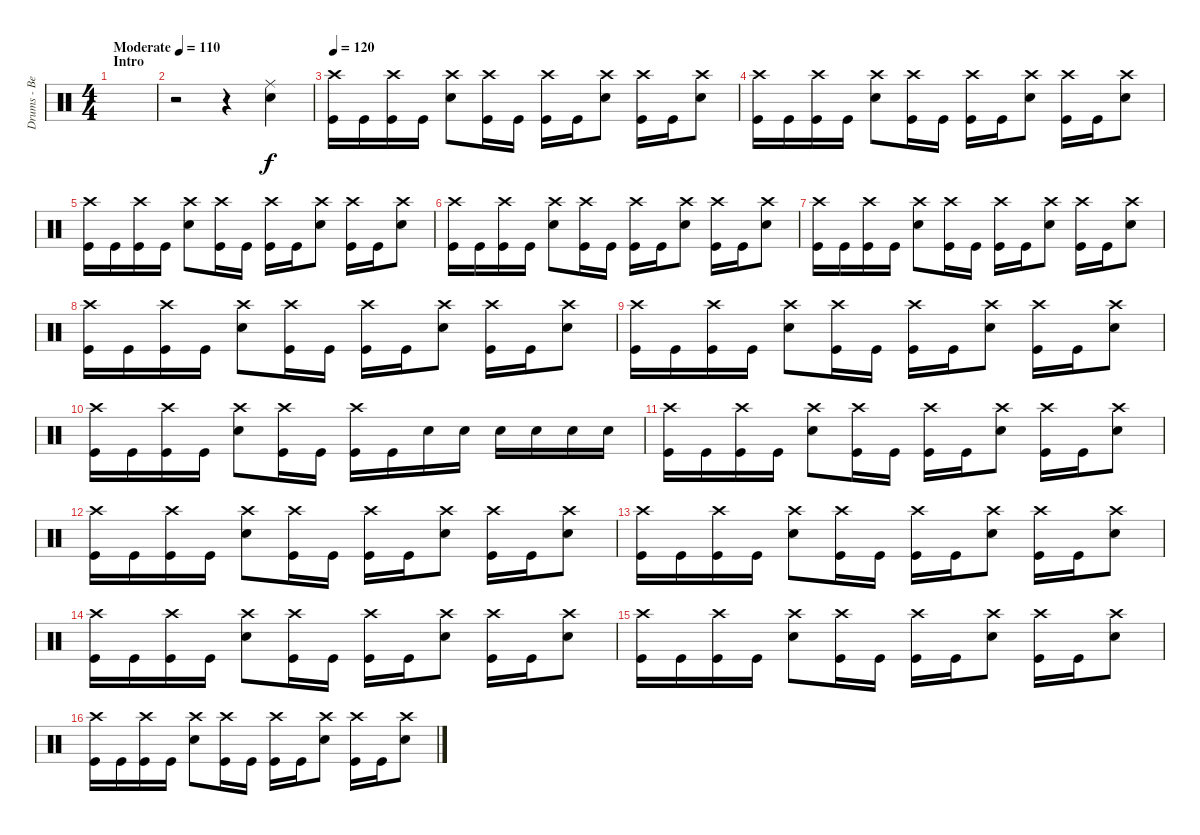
\track ("Drums - Ben Johnston" "Drums - Be") {instrument percussion}
\staff {score}
\articulation defaults
\ts (4 4)
\section ("" "Intro")
\tempo (110 "Moderate")
\clef neutral
\ks c
|
r.2 r.4 ("Ride (middle)" "Snare (hit) 2").4 |
\tempo 120
("Crash high (hit)" "Kick (hit)").16 "Kick (hit)".16 ("Crash high (hit)" "Kick (hit)").16 "Kick (hit)".16 ("Crash high (hit)" "Snare (hit) 2").8 ("Crash high (hit)" "Kick (hit)").16 "Kick (hit)".16 ("Crash high (hit)" "Kick (hit)").16 "Kick (hit)".16 ("Crash high (hit)" "Snare (hit) 2").8 ("Crash high (hit)" "Kick (hit)").16 "Kick (hit)".16 ("Crash high (hit)" "Snare (hit) 2").8 |
("Crash high (hit)" "Kick (hit)").16 "Kick (hit)".16 ("Crash high (hit)" "Kick (hit)").16 "Kick (hit)".16 ("Crash high (hit)" "Snare (hit) 2").8 ("Crash high (hit)" "Kick (hit)").16 "Kick (hit)".16 ("Crash high (hit)" "Kick (hit)").16 "Kick (hit)".16 ("Crash high (hit)" "Snare (hit) 2").8 ("Crash high (hit)" "Kick (hit)").16 "Kick (hit)".16 ("Crash high (hit)" "Snare (hit) 2").8 |
("Crash high (hit)" "Kick (hit)").16 "Kick (hit)".16 ("Crash high (hit)" "Kick (hit)").16 "Kick (hit)".16 ("Crash high (hit)" "Snare (hit) 2").8 ("Crash high (hit)" "Kick (hit)").16 "Kick (hit)".16 ("Crash high (hit)" "Kick (hit)").16 "Kick (hit)".16 ("Crash high (hit)" "Snare (hit) 2").8 ("Crash high (hit)" "Kick (hit)").16 "Kick (hit)".16 ("Crash high (hit)" "Snare (hit) 2").8 |
("Crash high (hit)" "Kick (hit)").16 "Kick (hit)".16 ("Crash high (hit)" "Kick (hit)").16 "Kick (hit)".16 ("Crash high (hit)" "Snare (hit) 2").8 ("Crash high (hit)" "Kick (hit)").16 "Kick (hit)".16 ("Crash high (hit)" "Kick (hit)").16 "Kick (hit)".16 ("Crash high (hit)" "Snare (hit) 2").8 ("Crash high (hit)" "Kick (hit)").16 "Kick (hit)".16 ("Crash high (hit)" "Snare (hit) 2").8 |
("Crash high (hit)" "Kick (hit)").16 "Kick (hit)".16 ("Crash high (hit)" "Kick (hit)").16 "Kick (hit)".16 ("Crash high (hit)" "Snare (hit) 2").8 ("Crash high (hit)" "Kick (hit)").16 "Kick (hit)".16 ("Crash high (hit)" "Kick (hit)").16 "Kick (hit)".16 ("Crash high (hit)" "Snare (hit) 2").8 ("Crash high (hit)" "Kick (hit)").16 "Kick (hit)".16 ("Crash high (hit)" "Snare (hit) 2").8 |
("Crash high (hit)" "Kick (hit)").16 "Kick (hit)".16 ("Crash high (hit)" "Kick (hit)").16 "Kick (hit)".16 ("Crash high (hit)" "Snare (hit) 2").8 ("Crash high (hit)" "Kick (hit)").16 "Kick (hit)".16 ("Crash high (hit)" "Kick (hit)").16 "Kick (hit)".16 ("Crash high (hit)" "Snare (hit) 2").8 ("Crash high (hit)" "Kick (hit)").16 "Kick (hit)".16 ("Crash high (hit)" "Snare (hit) 2").8 |
("Crash high (hit)" "Kick (hit)").16 "Kick (hit)".16 ("Crash high (hit)" "Kick (hit)").16 "Kick (hit)".16 ("Crash high (hit)" "Snare (hit) 2").8 ("Crash high (hit)" "Kick (hit)").16 "Kick (hit)".16 ("Crash high (hit)" "Kick (hit)").16 "Kick (hit)".16 ("Crash high (hit)" "Snare (hit) 2").8 ("Crash high (hit)" "Kick (hit)").16 "Kick (hit)".16 ("Crash high (hit)" "Snare (hit) 2").8 |
("Crash high (hit)" "Kick (hit)").16 "Kick (hit)".16 ("Crash high (hit)" "Kick (hit)").16 "Kick (hit)".16 ("Crash high (hit)" "Snare (hit) 2").8 ("Crash high (hit)" "Kick (hit)").16 "Kick (hit)".16 ("Crash high (hit)" "Kick (hit)").16 "Kick (hit)".16 "Snare (hit) 2".16 "Snare (hit) 2".16 "Snare (hit) 2".16 "Snare (hit) 2".16 "Snare (hit) 2".16 "Snare (hit) 2".16 |
("Crash high (hit)" "Kick (hit)").16 "Kick (hit)".16 ("Crash high (hit)" "Kick (hit)").16 "Kick (hit)".16 ("Crash high (hit)" "Snare (hit) 2").8 ("Crash high (hit)" "Kick (hit)").16 "Kick (hit)".16 ("Crash high (hit)" "Kick (hit)").16 "Kick (hit)".16 ("Crash high (hit)" "Snare (hit) 2").8 ("Crash high (hit)" "Kick (hit)").16 "Kick (hit)".16 ("Crash high (hit)" "Snare (hit) 2").8 |
("Crash high (hit)" "Kick (hit)").16 "Kick (hit)".16 ("Crash high (hit)" "Kick (hit)").16 "Kick (hit)".16 ("Crash high (hit)" "Snare (hit) 2").8 ("Crash high (hit)" "Kick (hit)").16 "Kick (hit)".16 ("Crash high (hit)" "Kick (hit)").16 "Kick (hit)".16 ("Crash high (hit)" "Snare (hit) 2").8 ("Crash high (hit)" "Kick (hit)").16 "Kick (hit)".16 ("Crash high (hit)" "Snare (hit) 2").8 |
("Crash high (hit)" "Kick (hit)").16 "Kick (hit)".16 ("Crash high (hit)" "Kick (hit)").16 "Kick (hit)".16 ("Crash high (hit)" "Snare (hit) 2").8 ("Crash high (hit)" "Kick (hit)").16 "Kick (hit)".16 ("Crash high (hit)" "Kick (hit)").16 "Kick (hit)".16 ("Crash high (hit)" "Snare (hit) 2").8 ("Crash high (hit)" "Kick (hit)").16 "Kick (hit)".16 ("Crash high (hit)" "Snare (hit) 2").8 |
("Crash high (hit)" "Kick (hit)").16 "Kick (hit)".16 ("Crash high (hit)" "Kick (hit)").16 "Kick (hit)".16 ("Crash high (hit)" "Snare (hit) 2").8 ("Crash high (hit)" "Kick (hit)").16 "Kick (hit)".16 ("Crash high (hit)" "Kick (hit)").16 "Kick (hit)".16 ("Crash high (hit)" "Snare (hit) 2").8 ("Crash high (hit)" "Kick (hit)").16 "Kick (hit)".16 ("Crash high (hit)" "Snare (hit) 2").8 |
("Crash high (hit)" "Kick (hit)").16 "Kick (hit)".16 ("Crash high (hit)" "Kick (hit)").16 "Kick (hit)".16 ("Crash high (hit)" "Snare (hit) 2").8 ("Crash high (hit)" "Kick (hit)").16 "Kick (hit)".16 ("Crash high (hit)" "Kick (hit)").16 "Kick (hit)".16 ("Crash high (hit)" "Snare (hit) 2").8 ("Crash high (hit)" "Kick (hit)").16 "Kick (hit)".16 ("Crash high (hit)" "Snare (hit) 2").8 |
("Crash high (hit)" "Kick (hit)").16 "Kick (hit)".16 ("Crash high (hit)" "Kick (hit)").16 "Kick (hit)".16 ("Crash high (hit)" "Snare (hit) 2").8 ("Crash high (hit)" "Kick (hit)").16 "Kick (hit)".16 ("Crash high (hit)" "Kick (hit)").16 "Kick (hit)".16 ("Crash high (hit)" "Snare (hit) 2").8 ("Crash high (hit)" "Kick (hit)").16 "Kick (hit)".16 ("Crash high (hit)" "Snare (hit) 2").8
